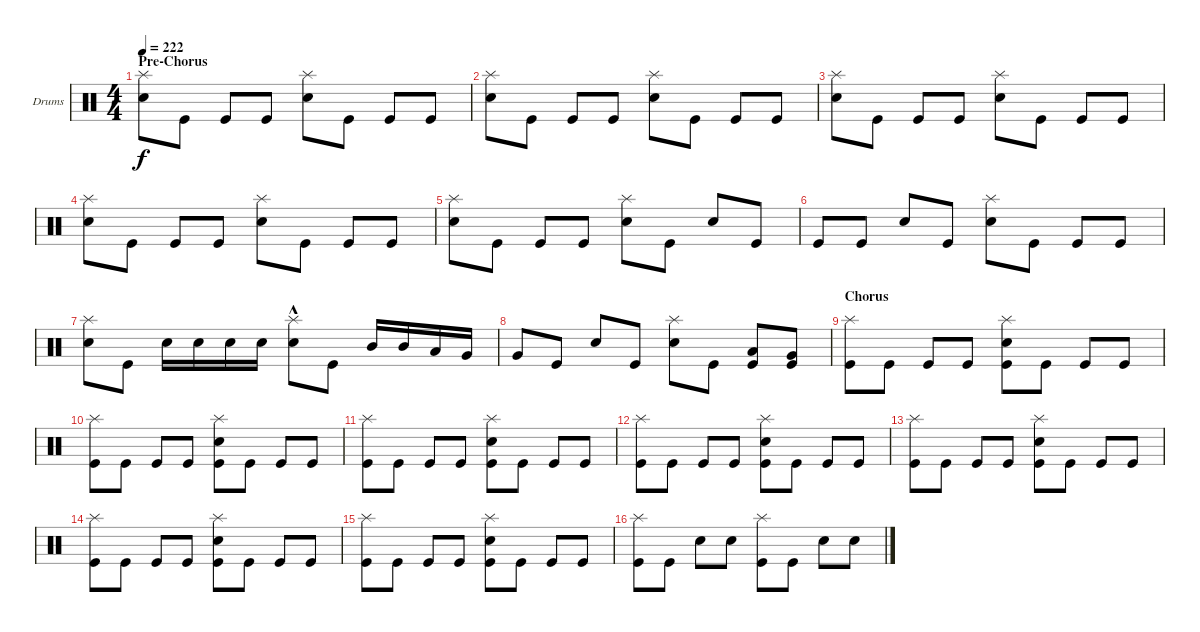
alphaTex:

\defaultSystemsLayout 4
\bracketExtendMode groupsimilarinstruments
\firstSystemTrackNameOrientation horizontal
\otherSystemsTrackNameOrientation horizontal
\track ("Drumkit" "Drums") {mute instrument percussion}
\staff {score}
\articulation defaults
\ts (4 4)
\section ("" "Pre-Chorus")
\tempo 222
\clef neutral
\ks c
("Splash (hit)" "Snare (hit) 2").8{dy f} "Kick (hit)".8 "Kick (hit)".8 "Kick (hit)".8 ("Splash (hit)" "Snare (hit) 2").8 "Kick (hit)".8 "Kick (hit)".8 "Kick (hit)".8 |
("Splash (hit)" "Snare (hit) 2").8 "Kick (hit)".8 "Kick (hit)".8 "Kick (hit)".8 ("Splash (hit)" "Snare (hit) 2").8 "Kick (hit)".8 "Kick (hit)".8 "Kick (hit)".8 |
("Splash (hit)" "Snare (hit) 2").8 "Kick (hit)".8 "Kick (hit)".8 "Kick (hit)".8 ("Splash (hit)" "Snare (hit) 2").8 "Kick (hit)".8 "Kick (hit)".8 "Kick (hit)".8 |
("Splash (hit)" "Snare (hit) 2").8 "Kick (hit)".8 "Kick (hit)".8 "Kick (hit)".8 ("Splash (hit)" "Snare (hit) 2").8 "Kick (hit)".8 "Kick (hit)".8 "Kick (hit)".8 |
("Splash (hit)" "Snare (hit) 2").8 "Kick (hit)".8 "Kick (hit)".8 "Kick (hit)".8 ("Splash (hit)" "Snare (hit) 2").8 "Kick (hit)".8 "Snare (hit) 2".8 "Kick (hit)".8 |
"Kick (hit)".8 "Kick (hit)".8 "Snare (hit) 2".8 "Kick (hit)".8 ("Splash (hit)" "Snare (hit) 2").8 "Kick (hit)".8 "Kick (hit)".8 "Kick (hit)".8 |
("Splash (hit)" "Snare (hit) 2").8 "Kick (hit)".8 "Snare (hit) 2".16 "Snare (hit) 2".16 "Snare (hit) 2".16 "Snare (hit) 2".16 ("Splash (hit)" "Snare (hit) 2"{hac}).8 "Kick (hit)".8 "Mid Tom (hit)".16 "Mid Tom (hit)".16 "Low Tom (hit)".16 "Very Low Tom (hit)".16 |
"Very Low Tom (hit)".8 "Kick (hit)".8 "Snare (hit) 2".8 "Kick (hit)".8 ("Splash (hit)" "Snare (hit) 2").8 "Kick (hit)".8 ("Kick (hit)" "Low Tom (hit)").8 ("Kick (hit)" "Very Low Tom (hit)").8 |
\section ("" "Chorus")
("Kick (hit)" "Splash (hit)").8 "Kick (hit)".8 "Kick (hit)".8 "Kick (hit)".8 ("Kick (hit)" "Splash (hit)" "Snare (hit) 2").8 "Kick (hit)".8 "Kick (hit)".8 "Kick (hit)".8 |
("Kick (hit)" "Splash (hit)").8 "Kick (hit)".8 "Kick (hit)".8 "Kick (hit)".8 ("Kick (hit)" "Splash (hit)" "Snare (hit) 2").8 "Kick (hit)".8 "Kick (hit)".8 "Kick (hit)".8 |
("Kick (hit)" "Splash (hit)").8 "Kick (hit)".8 "Kick (hit)".8 "Kick (hit)".8 ("Kick (hit)" "Splash (hit)" "Snare (hit) 2").8 "Kick (hit)".8 "Kick (hit)".8 "Kick (hit)".8 |
("Kick (hit)" "Splash (hit)").8 "Kick (hit)".8 "Kick (hit)".8 "Kick (hit)".8 ("Kick (hit)" "Splash (hit)" "Snare (hit) 2").8 "Kick (hit)".8 "Kick (hit)".8 "Kick (hit)".8 |
("Kick (hit)" "Splash (hit)").8 "Kick (hit)".8 "Kick (hit)".8 "Kick (hit)".8 ("Kick (hit)" "Splash (hit)" "Snare (hit) 2").8 "Kick (hit)".8 "Kick (hit)".8 "Kick (hit)".8 |
("Kick (hit)" "Splash (hit)").8 "Kick (hit)".8 "Kick (hit)".8 "Kick (hit)".8 ("Kick (hit)" "Splash (hit)" "Snare (hit) 2").8 "Kick (hit)".8 "Kick (hit)".8 "Kick (hit)".8 |
("Kick (hit)" "Splash (hit)").8 "Kick (hit)".8 "Kick (hit)".8 "Kick (hit)".8 ("Kick (hit)" "Splash (hit)" "Snare (hit) 2").8 "Kick (hit)".8 "Kick (hit)".8 "Kick (hit)".8 |
("Kick (hit)" "Splash (hit)").8 "Kick (hit)".8 "Snare (hit) 2".8 "Snare (hit) 2".8 ("Kick (hit)" "Splash (hit)").8 "Kick (hit)".8 "Snare (hit) 2".8 "Snare (hit) 2".8
